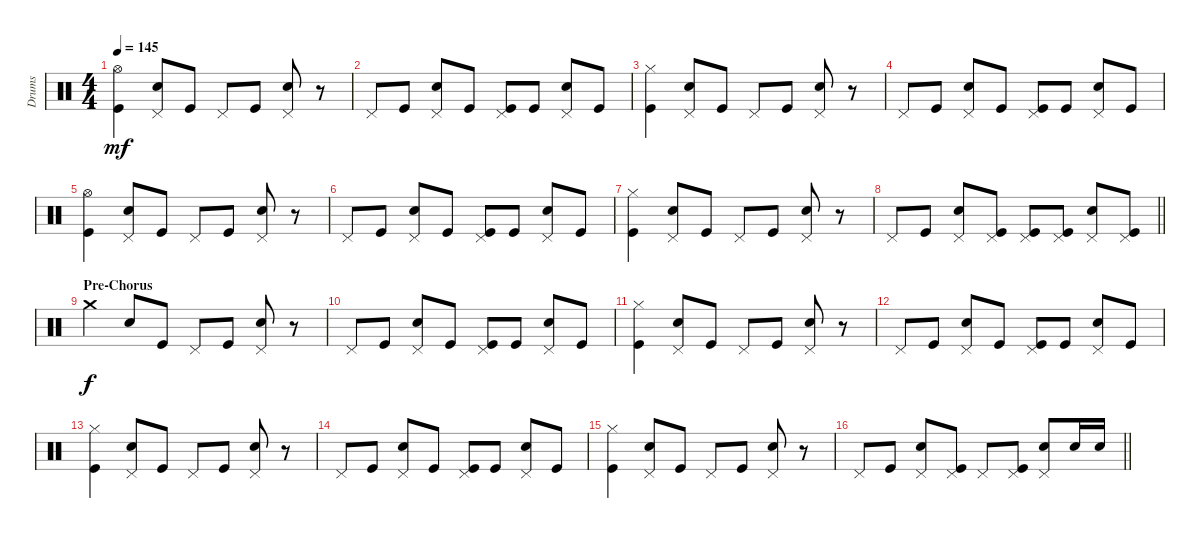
\track ("Drums" "Drums") {instrument percussion}
\staff {score}
\articulation defaults
\ts (4 4)
\tempo 145
\clef neutral
\ks c
("Hi-Hat (open)" "Kick (hit)").4{dy mf} ("Pedal Hi-Hat (hit)" "Snare (hit) 2").8 "Kick (hit)".8 "Pedal Hi-Hat (hit)".8 "Kick (hit)".8 ("Pedal Hi-Hat (hit)" "Snare (hit) 2").8 r.8 |
"Pedal Hi-Hat (hit)".8 "Kick (hit)".8 ("Pedal Hi-Hat (hit)" "Snare (hit) 2").8 "Kick (hit)".8 ("Pedal Hi-Hat (hit)" "Kick (hit)").8 "Kick (hit)".8 ("Pedal Hi-Hat (hit)" "Snare (hit) 2").8 "Kick (hit)".8 |
("Hi-Hat (closed)" "Kick (hit)").4 ("Pedal Hi-Hat (hit)" "Snare (hit) 2").8 "Kick (hit)".8 "Pedal Hi-Hat (hit)".8 "Kick (hit)".8 ("Pedal Hi-Hat (hit)" "Snare (hit) 2").8 r.8 |
"Pedal Hi-Hat (hit)".8 "Kick (hit)".8 ("Pedal Hi-Hat (hit)" "Snare (hit) 2").8 "Kick (hit)".8 ("Pedal Hi-Hat (hit)" "Kick (hit)").8 "Kick (hit)".8 ("Pedal Hi-Hat (hit)" "Snare (hit) 2").8 "Kick (hit)".8 |
("Hi-Hat (open)" "Kick (hit)").4 ("Pedal Hi-Hat (hit)" "Snare (hit) 2").8 "Kick (hit)".8 "Pedal Hi-Hat (hit)".8 "Kick (hit)".8 ("Pedal Hi-Hat (hit)" "Snare (hit) 2").8 r.8 |
"Pedal Hi-Hat (hit)".8 "Kick (hit)".8 ("Pedal Hi-Hat (hit)" "Snare (hit) 2").8 "Kick (hit)".8 ("Pedal Hi-Hat (hit)" "Kick (hit)").8 "Kick (hit)".8 ("Pedal Hi-Hat (hit)" "Snare (hit) 2").8 "Kick (hit)".8 |
("Hi-Hat (closed)" "Kick (hit)").4 ("Pedal Hi-Hat (hit)" "Snare (hit) 2").8 "Kick (hit)".8 "Pedal Hi-Hat (hit)".8 "Kick (hit)".8 ("Pedal Hi-Hat (hit)" "Snare (hit) 2").8 r.8 |
\barLineRight lightlight "Pedal Hi-Hat (hit)".8 "Kick (hit)".8
("Pedal Hi-Hat (hit)" "Snare (hit) 2").8 ("Pedal Hi-Hat (hit)" "Kick (hit)").8 ("Pedal Hi-Hat (hit)" "Kick (hit)").8 ("Pedal Hi-Hat (hit)" "Kick (hit)").8 ("Pedal Hi-Hat (hit)" "Snare (hit) 2").8 ("Pedal Hi-Hat (hit)" "Kick (hit)").8 |
\section ("" "Pre-Chorus")
"Crash medium (hit)".4{dy f} "Snare (hit) 2".8 "Kick (hit)".8 "Pedal Hi-Hat (hit)".8 "Kick (hit)".8 ("Pedal Hi-Hat (hit)" "Snare (hit) 2").8 r.8 |
"Pedal Hi-Hat (hit)".8 "Kick (hit)".8 ("Pedal Hi-Hat (hit)" "Snare (hit) 2").8 "Kick (hit)".8 ("Pedal Hi-Hat (hit)" "Kick (hit)").8 "Kick (hit)".8 ("Pedal Hi-Hat (hit)" "Snare (hit) 2").8 "Kick (hit)".8 |
("Hi-Hat (closed)" "Kick (hit)").4 ("Pedal Hi-Hat (hit)" "Snare (hit) 2").8 "Kick (hit)".8 "Pedal Hi-Hat (hit)".8 "Kick (hit)".8 ("Pedal Hi-Hat (hit)" "Snare (hit) 2").8 r.8 |
"Pedal Hi-Hat (hit)".8 "Kick (hit)".8 ("Pedal Hi-Hat (hit)" "Snare (hit) 2").8 "Kick (hit)".8 ("Pedal Hi-Hat (hit)" "Kick (hit)").8 "Kick (hit)".8 ("Pedal Hi-Hat (hit)" "Snare (hit) 2").8 "Kick (hit)".8 |
("Hi-Hat (closed)" "Kick (hit)").4 ("Pedal Hi-Hat (hit)" "Snare (hit) 2").8 "Kick (hit)".8 "Pedal Hi-Hat (hit)".8 "Kick (hit)".8 ("Pedal Hi-Hat (hit)" "Snare (hit) 2").8 r.8 |
"Pedal Hi-Hat (hit)".8 "Kick (hit)".8 ("Pedal Hi-Hat (hit)" "Snare (hit) 2").8 "Kick (hit)".8 ("Pedal Hi-Hat (hit)" "Kick (hit)").8 "Kick (hit)".8 ("Pedal Hi-Hat (hit)" "Snare (hit) 2").8 "Kick (hit)".8 |
("Hi-Hat (closed)" "Kick (hit)").4 ("Pedal Hi-Hat (hit)" "Snare (hit) 2").8 "Kick (hit)".8 "Pedal Hi-Hat (hit)".8 "Kick (hit)".8 ("Pedal Hi-Hat (hit)" "Snare (hit) 2").8 r.8 |
\barLineRight lightlight "Pedal Hi-Hat (hit)".8 "Kick (hit)".8
("Pedal Hi-Hat (hit)" "Snare (hit) 2").8 ("Pedal Hi-Hat (hit)" "Kick (hit)").8 "Pedal Hi-Hat (hit)".8 ("Pedal Hi-Hat (hit)" "Kick (hit)").8 ("Pedal Hi-Hat (hit)" "Snare (hit) 2").8 "Snare (hit) 2".16 "Snare (hit) 2".16
